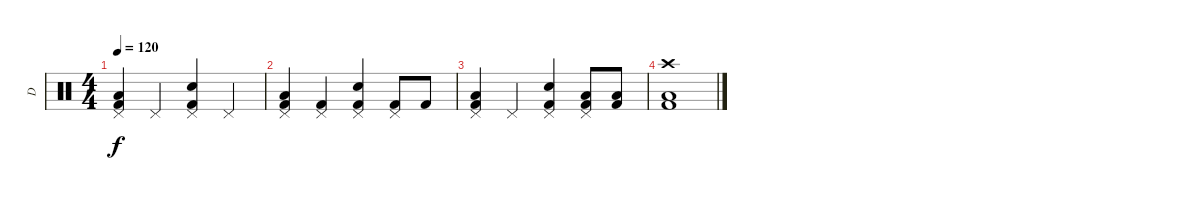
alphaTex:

\track ("D" "D") {instrument percussion}
\staff {score}
\articulation defaults
\ts (4 4)
\tempo 120
\clef neutral
\ks c
("Pedal Hi-Hat (hit)" "Low Floor Tom (hit)" "Kick (hit) 2").4{dy f} "Pedal Hi-Hat (hit)".4 ("Pedal Hi-Hat (hit)" "Snare (hit) 2" "Kick (hit) 2").4 "Pedal Hi-Hat (hit)".4 |
("Pedal Hi-Hat (hit)" "Low Floor Tom (hit)" "Kick (hit) 2").4 ("Pedal Hi-Hat (hit)" "Kick (hit) 2").4 ("Pedal Hi-Hat (hit)" "Snare (hit) 2" "Kick (hit) 2").4 ("Pedal Hi-Hat (hit)" "Kick (hit) 2").8 "Kick (hit) 2".8 |
("Pedal Hi-Hat (hit)" "Low Floor Tom (hit)" "Kick (hit) 2").4 "Pedal Hi-Hat (hit)".4 ("Pedal Hi-Hat (hit)" "Snare (hit) 2" "Kick (hit) 2").4 ("Pedal Hi-Hat (hit)" "Low Floor Tom (hit)" "Kick (hit) 2").8 ("Low Floor Tom (hit)" "Kick (hit) 2").8 |
("Crash high (hit)" "Low Floor Tom (hit)" "Kick (hit) 2").1
